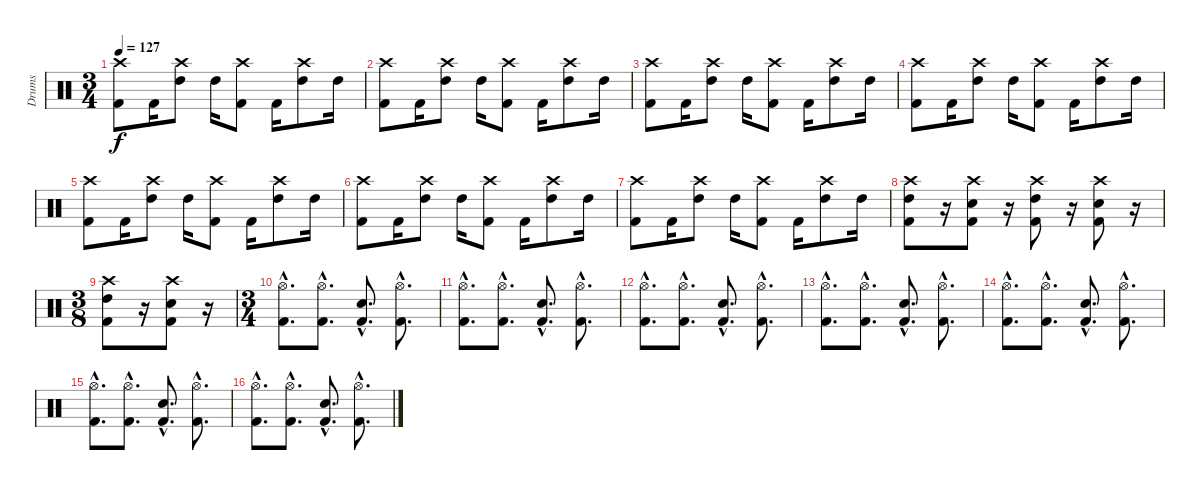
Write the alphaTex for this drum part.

\track ("Drums" "Drums") {instrument percussion}
\staff {score}
\articulation defaults
\ts (3 4)
\tempo 127
\clef neutral
\ks c
("Crash high (hit)" "Kick (hit) 2").8{dy f} "Kick (hit) 2".16 ("Crash high (hit)" "High Tom (hit)").8 "High Tom (hit)".16 ("Crash high (hit)" "Kick (hit) 2").8 "Kick (hit) 2".16 ("Crash high (hit)" "High Tom (hit)").8 "High Tom (hit)".16 |
("Crash high (hit)" "Kick (hit) 2").8 "Kick (hit) 2".16 ("Crash high (hit)" "High Tom (hit)").8 "High Tom (hit)".16 ("Crash high (hit)" "Kick (hit) 2").8 "Kick (hit) 2".16 ("Crash high (hit)" "High Tom (hit)").8 "High Tom (hit)".16 |
("Crash high (hit)" "Kick (hit) 2").8 "Kick (hit) 2".16 ("Crash high (hit)" "High Tom (hit)").8 "High Tom (hit)".16 ("Crash high (hit)" "Kick (hit) 2").8 "Kick (hit) 2".16 ("Crash high (hit)" "High Tom (hit)").8 "High Tom (hit)".16 |
("Crash high (hit)" "Kick (hit) 2").8 "Kick (hit) 2".16 ("Crash high (hit)" "High Tom (hit)").8 "High Tom (hit)".16 ("Crash high (hit)" "Kick (hit) 2").8 "Kick (hit) 2".16 ("Crash high (hit)" "High Tom (hit)").8 "High Tom (hit)".16 |
("Crash high (hit)" "Kick (hit) 2").8 "Kick (hit) 2".16 ("Crash high (hit)" "High Tom (hit)").8 "High Tom (hit)".16 ("Crash high (hit)" "Kick (hit) 2").8 "Kick (hit) 2".16 ("Crash high (hit)" "High Tom (hit)").8 "High Tom (hit)".16 |
("Crash high (hit)" "Kick (hit) 2").8 "Kick (hit) 2".16 ("Crash high (hit)" "High Tom (hit)").8 "High Tom (hit)".16 ("Crash high (hit)" "Kick (hit) 2").8 "Kick (hit) 2".16 ("Crash high (hit)" "High Tom (hit)").8 "High Tom (hit)".16 |
("Crash high (hit)" "Kick (hit) 2").8 "Kick (hit) 2".16 ("Crash high (hit)" "High Tom (hit)").8 "High Tom (hit)".16 ("Crash high (hit)" "Kick (hit) 2").8 "Kick (hit) 2".16 ("Crash high (hit)" "High Tom (hit)").8 "High Tom (hit)".16 |
("Crash high (hit)" "High Tom (hit)" "Kick (hit) 2").8 r.16 ("Crash high (hit)" "Electric Snare (hit)" "Kick (hit) 2").8 r.16 ("Crash high (hit)" "High Tom (hit)" "Kick (hit) 2").8 r.16 ("Crash high (hit)" "Electric Snare (hit)" "Kick (hit) 2").8 r.16 |
\ts (3 8)
("Crash high (hit)" "High Tom (hit)" "Kick (hit) 2").8 r.16 ("Crash high (hit)" "Electric Snare (hit)" "Kick (hit) 2").8 r.16 |
\ts (3 4)
("Hi-Hat (open)"{hac} "Kick (hit) 2"{hac}).8{d} ("Hi-Hat (open)"{hac} "Kick (hit) 2"{hac}).8{d} ("Electric Snare (hit)"{hac} "Kick (hit) 2"{hac}).8{d} ("Hi-Hat (open)"{hac} "Kick (hit) 2"{hac}).8{d} |
("Hi-Hat (open)"{hac} "Kick (hit) 2"{hac}).8{d} ("Hi-Hat (open)"{hac} "Kick (hit) 2"{hac}).8{d} ("Electric Snare (hit)"{hac} "Kick (hit) 2"{hac}).8{d} ("Hi-Hat (open)"{hac} "Kick (hit) 2"{hac}).8{d} |
("Hi-Hat (open)"{hac} "Kick (hit) 2"{hac}).8{d} ("Hi-Hat (open)"{hac} "Kick (hit) 2"{hac}).8{d} ("Electric Snare (hit)"{hac} "Kick (hit) 2"{hac}).8{d} ("Hi-Hat (open)"{hac} "Kick (hit) 2"{hac}).8{d} |
("Hi-Hat (open)"{hac} "Kick (hit) 2"{hac}).8{d} ("Hi-Hat (open)"{hac} "Kick (hit) 2"{hac}).8{d} ("Electric Snare (hit)"{hac} "Kick (hit) 2"{hac}).8{d} ("Hi-Hat (open)"{hac} "Kick (hit) 2"{hac}).8{d} |
("Hi-Hat (open)"{hac} "Kick (hit) 2"{hac}).8{d} ("Hi-Hat (open)"{hac} "Kick (hit) 2"{hac}).8{d} ("Electric Snare (hit)"{hac} "Kick (hit) 2"{hac}).8{d} ("Hi-Hat (open)"{hac} "Kick (hit) 2"{hac}).8{d} |
("Hi-Hat (open)"{hac} "Kick (hit) 2"{hac}).8{d} ("Hi-Hat (open)"{hac} "Kick (hit) 2"{hac}).8{d} ("Electric Snare (hit)"{hac} "Kick (hit) 2"{hac}).8{d} ("Hi-Hat (open)"{hac} "Kick (hit) 2"{hac}).8{d} |
("Hi-Hat (open)"{hac} "Kick (hit) 2"{hac}).8{d} ("Hi-Hat (open)"{hac} "Kick (hit) 2"{hac}).8{d} ("Electric Snare (hit)"{hac} "Kick (hit) 2"{hac}).8{d} ("Hi-Hat (open)"{hac} "Kick (hit) 2"{hac}).8{d}
